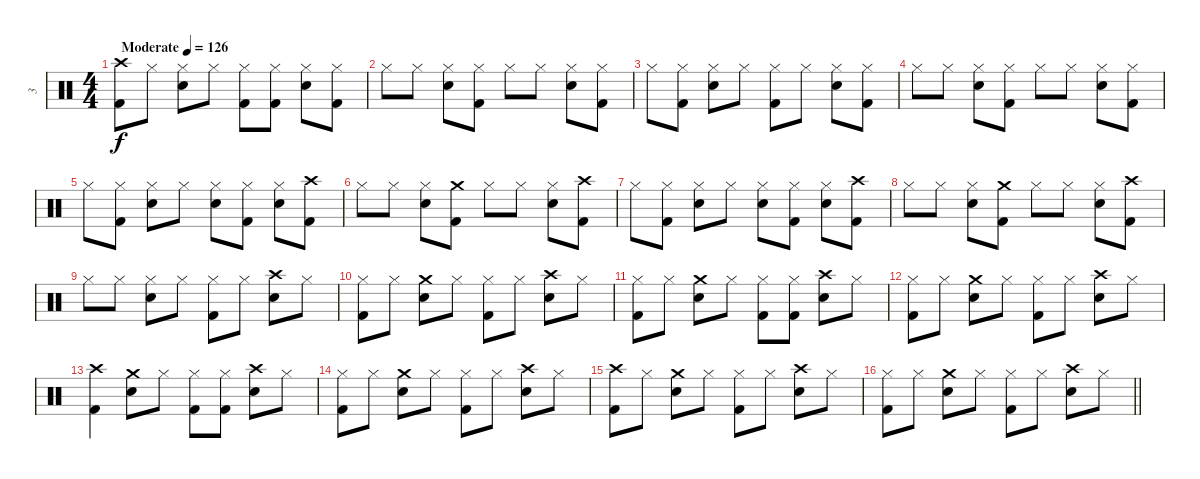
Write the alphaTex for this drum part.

\track ("3" "3") {instrument percussion}
\staff {score}
\articulation defaults
\ts (4 4)
\tempo (126 "Moderate")
\clef neutral
\ks c
("Crash high (hit)" "Kick (hit) 2").8{dy f} "Hi-Hat (closed)".8 ("Hi-Hat (closed)" "Snare (hit) 2").8 "Hi-Hat (closed)".8 ("Hi-Hat (closed)" "Kick (hit) 2").8 ("Hi-Hat (closed)" "Kick (hit) 2").8 ("Hi-Hat (closed)" "Snare (hit) 2").8 ("Hi-Hat (closed)" "Kick (hit) 2").8 |
"Hi-Hat (closed)".8 "Hi-Hat (closed)".8 ("Hi-Hat (closed)" "Snare (hit) 2").8 ("Hi-Hat (closed)" "Kick (hit) 2").8 "Hi-Hat (closed)".8 "Hi-Hat (closed)".8 ("Hi-Hat (closed)" "Snare (hit) 2").8 ("Hi-Hat (closed)" "Kick (hit) 2").8 |
"Hi-Hat (closed)".8 ("Hi-Hat (closed)" "Kick (hit) 2").8 ("Hi-Hat (closed)" "Snare (hit) 2").8 "Hi-Hat (closed)".8 ("Hi-Hat (closed)" "Kick (hit) 2").8 "Hi-Hat (closed)".8 ("Hi-Hat (closed)" "Snare (hit) 2").8 ("Hi-Hat (closed)" "Kick (hit) 2").8 |
"Hi-Hat (closed)".8 "Hi-Hat (closed)".8 ("Hi-Hat (closed)" "Snare (hit) 2").8 ("Hi-Hat (closed)" "Kick (hit) 2").8 "Hi-Hat (closed)".8 "Hi-Hat (closed)".8 ("Hi-Hat (closed)" "Snare (hit) 2").8 ("Hi-Hat (closed)" "Kick (hit) 2").8 |
"Hi-Hat (closed)".8 ("Hi-Hat (closed)" "Kick (hit) 2").8 ("Hi-Hat (closed)" "Snare (hit) 2").8 "Hi-Hat (closed)".8 ("Hi-Hat (closed)" "Snare (hit) 2").8 ("Hi-Hat (closed)" "Kick (hit) 2").8 ("Hi-Hat (closed)" "Snare (hit) 2").8 ("Crash high (hit)" "Kick (hit) 2").8 |
"Hi-Hat (closed)".8 "Hi-Hat (closed)".8 ("Hi-Hat (closed)" "Snare (hit) 2").8 ("Crash medium (hit)" "Kick (hit) 2").8 "Hi-Hat (closed)".8 "Hi-Hat (closed)".8 ("Hi-Hat (closed)" "Snare (hit) 2").8 ("Crash high (hit)" "Kick (hit) 2").8 |
"Hi-Hat (closed)".8 ("Hi-Hat (closed)" "Kick (hit) 2").8 ("Hi-Hat (closed)" "Snare (hit) 2").8 "Hi-Hat (closed)".8 ("Hi-Hat (closed)" "Snare (hit) 2").8 ("Hi-Hat (closed)" "Kick (hit) 2").8 ("Hi-Hat (closed)" "Snare (hit) 2").8 ("Crash high (hit)" "Kick (hit) 2").8 |
"Hi-Hat (closed)".8 "Hi-Hat (closed)".8 ("Hi-Hat (closed)" "Snare (hit) 2").8 ("Crash medium (hit)" "Kick (hit) 2").8 "Hi-Hat (closed)".8 "Hi-Hat (closed)".8 ("Hi-Hat (closed)" "Snare (hit) 2").8 ("Crash high (hit)" "Kick (hit) 2").8 |
"Hi-Hat (closed)".8 "Hi-Hat (closed)".8 ("Hi-Hat (closed)" "Snare (hit) 2").8 "Hi-Hat (closed)".8 ("Hi-Hat (closed)" "Kick (hit) 2").8 "Hi-Hat (closed)".8 ("Crash high (hit)" "Snare (hit) 2").8 "Hi-Hat (closed)".8 |
("Hi-Hat (closed)" "Kick (hit) 2").8 "Hi-Hat (closed)".8 ("Crash medium (hit)" "Snare (hit) 2").8 "Hi-Hat (closed)".8 ("Hi-Hat (closed)" "Kick (hit) 2").8 "Hi-Hat (closed)".8 ("Crash high (hit)" "Snare (hit) 2").8 "Hi-Hat (closed)".8 |
("Hi-Hat (closed)" "Kick (hit) 2").8 "Hi-Hat (closed)".8 ("Crash medium (hit)" "Snare (hit) 2").8 "Hi-Hat (closed)".8 ("Hi-Hat (closed)" "Kick (hit) 2").8 ("Hi-Hat (closed)" "Kick (hit) 2").8 ("Crash high (hit)" "Snare (hit) 2").8 "Hi-Hat (closed)".8 |
("Hi-Hat (closed)" "Kick (hit) 2").8 "Hi-Hat (closed)".8 ("Crash medium (hit)" "Snare (hit) 2").8 "Hi-Hat (closed)".8 ("Hi-Hat (closed)" "Kick (hit) 2").8 "Hi-Hat (closed)".8 ("Crash high (hit)" "Snare (hit) 2").8 "Hi-Hat (closed)".8 |
("Crash high (hit)" "Kick (hit) 2").4 ("Crash medium (hit)" "Snare (hit) 2").8 "Hi-Hat (closed)".8 ("Hi-Hat (closed)" "Kick (hit) 2").8 ("Hi-Hat (closed)" "Kick (hit) 2").8 ("Crash high (hit)" "Snare (hit) 2").8 "Hi-Hat (closed)".8 |
("Hi-Hat (closed)" "Kick (hit) 2").8 "Hi-Hat (closed)".8 ("Crash medium (hit)" "Snare (hit) 2").8 "Hi-Hat (closed)".8 ("Hi-Hat (closed)" "Kick (hit) 2").8 "Hi-Hat (closed)".8 ("Crash high (hit)" "Snare (hit) 2").8 "Hi-Hat (closed)".8 |
("Crash high (hit)" "Kick (hit) 2").8 "Hi-Hat (closed)".8 ("Crash medium (hit)" "Snare (hit) 2").8 "Hi-Hat (closed)".8 ("Hi-Hat (closed)" "Kick (hit) 2").8 "Hi-Hat (closed)".8 ("Crash high (hit)" "Snare (hit) 2").8 "Hi-Hat (closed)".8 |
\barLineRight lightlight
("Hi-Hat (closed)" "Kick (hit) 2").8 "Hi-Hat (closed)".8 ("Crash medium (hit)" "Snare (hit) 2").8 "Hi-Hat (closed)".8 ("Hi-Hat (closed)" "Kick (hit) 2").8 "Hi-Hat (closed)".8 ("Crash high (hit)" "Snare (hit) 2").8 "Hi-Hat (closed)".8
